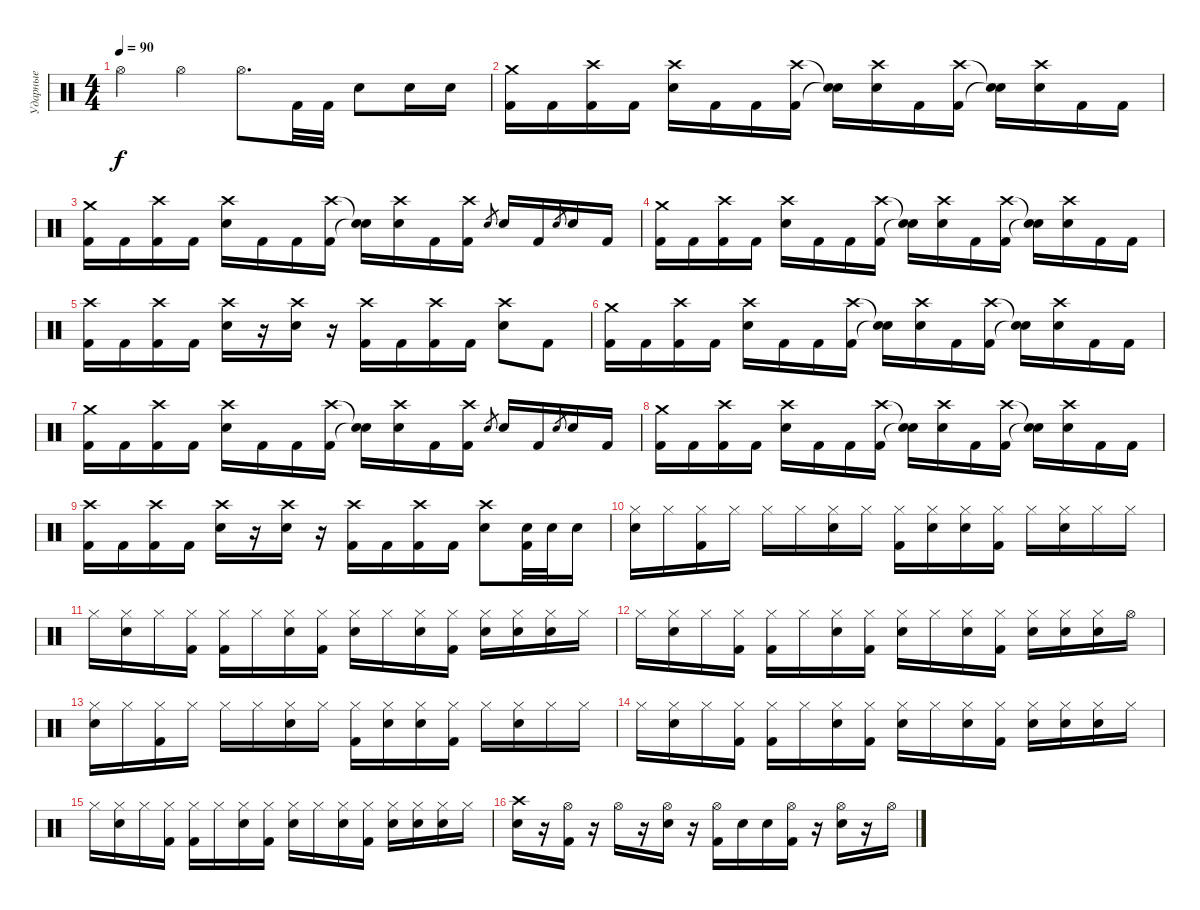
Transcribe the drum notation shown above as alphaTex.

\track ("Ударные" "Ударные") {instrument percussion}
\staff {score}
\articulation defaults
\ts (4 4)
\tempo 90
\clef neutral
\ks c "Hi-Hat (open)".4{dy f} "Hi-Hat (open)".4 "Hi-Hat (open)".8{d} "Kick (hit) 2".32 "Kick (hit) 2".32 "Electric Snare (hit)".8 "Electric Snare (hit)".16 "Electric Snare (hit)".16
|
("Crash medium (hit)" "Kick (hit) 2").16 "Kick (hit) 2".16 ("Crash high (hit)" "Kick (hit) 2").16 "Kick (hit) 2".16 ("Crash high (hit)" "Electric Snare (hit)").16 "Kick (hit) 2".16 "Kick (hit) 2".16 ("Crash high (hit)" "Kick (hit) 2").16 ("Snare (hit)"{t} "Snare (hit)"{t}).16 ("Crash high (hit)" "Electric Snare (hit)").16 "Kick (hit) 2".16 ("Crash high (hit)" "Kick (hit) 2").16 ("Snare (hit)"{t} "Snare (hit)"{t}).16 ("Crash high (hit)" "Electric Snare (hit)").16 "Kick (hit) 2".16 "Kick (hit) 2".16 |
("Crash medium (hit)" "Kick (hit) 2").16 "Kick (hit) 2".16 ("Crash high (hit)" "Kick (hit) 2").16 "Kick (hit) 2".16 ("Crash high (hit)" "Electric Snare (hit)").16 "Kick (hit) 2".16 "Kick (hit) 2".16 ("Crash high (hit)" "Kick (hit) 2").16 ("Snare (hit)"{t} "Snare (hit)"{t}).16 ("Crash high (hit)" "Electric Snare (hit)").16 "Kick (hit) 2".16 ("Crash high (hit)" "Kick (hit) 2").16 "Electric Snare (hit)".8{gr} "Electric Snare (hit)".16 "Kick (hit) 2".16 "Electric Snare (hit)".8{gr} "Electric Snare (hit)".16 "Kick (hit) 2".16 |
("Crash medium (hit)" "Kick (hit) 2").16 "Kick (hit) 2".16 ("Crash high (hit)" "Kick (hit) 2").16 "Kick (hit) 2".16 ("Crash high (hit)" "Electric Snare (hit)").16 "Kick (hit) 2".16 "Kick (hit) 2".16 ("Crash high (hit)" "Kick (hit) 2").16 ("Snare (hit)"{t} "Snare (hit)"{t}).16 ("Crash high (hit)" "Electric Snare (hit)").16 "Kick (hit) 2".16 ("Crash high (hit)" "Kick (hit) 2").16 ("Snare (hit)"{t} "Snare (hit)"{t}).16 ("Crash high (hit)" "Electric Snare (hit)").16 "Kick (hit) 2".16 "Kick (hit) 2".16 |
("Crash high (hit)" "Kick (hit) 2").16 "Kick (hit) 2".16 ("Crash high (hit)" "Kick (hit) 2").16 "Kick (hit) 2".16 ("Crash high (hit)" "Electric Snare (hit)").16 r.16 ("Crash high (hit)" "Electric Snare (hit)").16 r.16 ("Crash high (hit)" "Kick (hit) 2").16 "Kick (hit) 2".16 ("Crash high (hit)" "Kick (hit) 2").16 "Kick (hit) 2".16 ("Crash high (hit)" "Electric Snare (hit)").8 "Kick (hit) 2".8 |
("Crash medium (hit)" "Kick (hit) 2").16 "Kick (hit) 2".16 ("Crash high (hit)" "Kick (hit) 2").16 "Kick (hit) 2".16 ("Crash high (hit)" "Electric Snare (hit)").16 "Kick (hit) 2".16 "Kick (hit) 2".16 ("Crash high (hit)" "Kick (hit) 2").16 ("Snare (hit)"{t} "Snare (hit)"{t}).16 ("Crash high (hit)" "Electric Snare (hit)").16 "Kick (hit) 2".16 ("Crash high (hit)" "Kick (hit) 2").16 ("Snare (hit)"{t} "Snare (hit)"{t}).16 ("Crash high (hit)" "Electric Snare (hit)").16 "Kick (hit) 2".16 "Kick (hit) 2".16 |
("Crash medium (hit)" "Kick (hit) 2").16 "Kick (hit) 2".16 ("Crash high (hit)" "Kick (hit) 2").16 "Kick (hit) 2".16 ("Crash high (hit)" "Electric Snare (hit)").16 "Kick (hit) 2".16 "Kick (hit) 2".16 ("Crash high (hit)" "Kick (hit) 2").16 ("Snare (hit)"{t} "Snare (hit)"{t}).16 ("Crash high (hit)" "Electric Snare (hit)").16 "Kick (hit) 2".16 ("Crash high (hit)" "Kick (hit) 2").16 "Electric Snare (hit)".8{gr} "Electric Snare (hit)".16 "Kick (hit) 2".16 "Electric Snare (hit)".8{gr} "Electric Snare (hit)".16 "Kick (hit) 2".16 |
("Crash medium (hit)" "Kick (hit) 2").16 "Kick (hit) 2".16 ("Crash high (hit)" "Kick (hit) 2").16 "Kick (hit) 2".16 ("Crash high (hit)" "Electric Snare (hit)").16 "Kick (hit) 2".16 "Kick (hit) 2".16 ("Crash high (hit)" "Kick (hit) 2").16 ("Snare (hit)"{t} "Snare (hit)"{t}).16 ("Crash high (hit)" "Electric Snare (hit)").16 "Kick (hit) 2".16 ("Crash high (hit)" "Kick (hit) 2").16 ("Snare (hit)"{t} "Snare (hit)"{t}).16 ("Crash high (hit)" "Electric Snare (hit)").16 "Kick (hit) 2".16 "Kick (hit) 2".16 |
("Crash high (hit)" "Kick (hit) 2").16 "Kick (hit) 2".16 ("Crash high (hit)" "Kick (hit) 2").16 "Kick (hit) 2".16 ("Crash high (hit)" "Electric Snare (hit)").16 r.16 ("Crash high (hit)" "Electric Snare (hit)").16 r.16 ("Crash high (hit)" "Kick (hit) 2").16 "Kick (hit) 2".16 ("Crash high (hit)" "Kick (hit) 2").16 "Kick (hit) 2".16 ("Crash high (hit)" "Electric Snare (hit)").8 ("Electric Snare (hit)" "Kick (hit) 2").32 "Electric Snare (hit)".32 "Electric Snare (hit)".16 |
("Hi-Hat (closed)" "Electric Snare (hit)").16 "Hi-Hat (closed)".16 ("Hi-Hat (closed)" "Kick (hit) 2").16 "Hi-Hat (closed)".16 "Hi-Hat (closed)".16 "Hi-Hat (closed)".16 ("Hi-Hat (closed)" "Electric Snare (hit)").16 "Hi-Hat (closed)".16 ("Hi-Hat (closed)" "Kick (hit) 2").16 ("Hi-Hat (closed)" "Electric Snare (hit)").16 ("Hi-Hat (closed)" "Electric Snare (hit)").16 ("Hi-Hat (closed)" "Kick (hit) 2").16 "Hi-Hat (closed)".16 ("Hi-Hat (closed)" "Electric Snare (hit)").16 "Hi-Hat (closed)".16 "Hi-Hat (closed)".16 |
"Hi-Hat (closed)".16 ("Hi-Hat (closed)" "Electric Snare (hit)").16 "Hi-Hat (closed)".16 ("Hi-Hat (closed)" "Kick (hit) 2").16 ("Hi-Hat (closed)" "Kick (hit) 2").16 "Hi-Hat (closed)".16 ("Hi-Hat (closed)" "Electric Snare (hit)").16 ("Hi-Hat (closed)" "Kick (hit) 2").16 ("Hi-Hat (closed)" "Electric Snare (hit)").16 "Hi-Hat (closed)".16 ("Hi-Hat (closed)" "Electric Snare (hit)").16 ("Hi-Hat (closed)" "Kick (hit) 2").16 ("Hi-Hat (closed)" "Electric Snare (hit)").16 ("Hi-Hat (closed)" "Electric Snare (hit)").16 ("Hi-Hat (closed)" "Electric Snare (hit)").16 "Hi-Hat (closed)".16 |
"Hi-Hat (closed)".16 ("Hi-Hat (closed)" "Electric Snare (hit)").16 "Hi-Hat (closed)".16 ("Hi-Hat (closed)" "Kick (hit) 2").16 ("Hi-Hat (closed)" "Kick (hit) 2").16 "Hi-Hat (closed)".16 ("Hi-Hat (closed)" "Electric Snare (hit)").16 ("Hi-Hat (closed)" "Kick (hit) 2").16 ("Hi-Hat (closed)" "Electric Snare (hit)").16 "Hi-Hat (closed)".16 ("Hi-Hat (closed)" "Electric Snare (hit)").16 ("Hi-Hat (closed)" "Kick (hit) 2").16 ("Hi-Hat (closed)" "Electric Snare (hit)").16 ("Hi-Hat (closed)" "Electric Snare (hit)").16 ("Hi-Hat (closed)" "Electric Snare (hit)").16 "Hi-Hat (open)".16 |
("Hi-Hat (closed)" "Electric Snare (hit)").16 "Hi-Hat (closed)".16 ("Hi-Hat (closed)" "Kick (hit) 2").16 "Hi-Hat (closed)".16 "Hi-Hat (closed)".16 "Hi-Hat (closed)".16 ("Hi-Hat (closed)" "Electric Snare (hit)").16 "Hi-Hat (closed)".16 ("Hi-Hat (closed)" "Kick (hit) 2").16 ("Hi-Hat (closed)" "Electric Snare (hit)").16 ("Hi-Hat (closed)" "Electric Snare (hit)").16 ("Hi-Hat (closed)" "Kick (hit) 2").16 "Hi-Hat (closed)".16 ("Hi-Hat (closed)" "Electric Snare (hit)").16 "Hi-Hat (closed)".16 "Hi-Hat (closed)".16 |
"Hi-Hat (closed)".16 ("Hi-Hat (closed)" "Electric Snare (hit)").16 "Hi-Hat (closed)".16 ("Hi-Hat (closed)" "Kick (hit) 2").16 ("Hi-Hat (closed)" "Kick (hit) 2").16 "Hi-Hat (closed)".16 ("Hi-Hat (closed)" "Electric Snare (hit)").16 ("Hi-Hat (closed)" "Kick (hit) 2").16 ("Hi-Hat (closed)" "Electric Snare (hit)").16 "Hi-Hat (closed)".16 ("Hi-Hat (closed)" "Electric Snare (hit)").16 ("Hi-Hat (closed)" "Kick (hit) 2").16 ("Hi-Hat (closed)" "Electric Snare (hit)").16 ("Hi-Hat (closed)" "Electric Snare (hit)").16 ("Hi-Hat (closed)" "Electric Snare (hit)").16 "Hi-Hat (closed)".16 |
"Hi-Hat (closed)".16 ("Hi-Hat (closed)" "Electric Snare (hit)").16 "Hi-Hat (closed)".16 ("Hi-Hat (closed)" "Kick (hit) 2").16 ("Hi-Hat (closed)" "Kick (hit) 2").16 "Hi-Hat (closed)".16 ("Hi-Hat (closed)" "Electric Snare (hit)").16 ("Hi-Hat (closed)" "Kick (hit) 2").16 ("Hi-Hat (closed)" "Electric Snare (hit)").16 "Hi-Hat (closed)".16 ("Hi-Hat (closed)" "Electric Snare (hit)").16 ("Hi-Hat (closed)" "Kick (hit) 2").16 ("Hi-Hat (closed)" "Electric Snare (hit)").16 ("Hi-Hat (closed)" "Electric Snare (hit)").16 ("Hi-Hat (closed)" "Electric Snare (hit)").16 "Hi-Hat (closed)".16 |
("Crash high (hit)" "Electric Snare (hit)").16 r.16 ("Hi-Hat (open)" "Kick (hit) 2").16 r.16 "Hi-Hat (open)".16 r.16 ("Hi-Hat (open)" "Electric Snare (hit)").16 r.16 ("Hi-Hat (open)" "Kick (hit) 2").16 "Electric Snare (hit)".16 "Electric Snare (hit)".16 ("Hi-Hat (open)" "Kick (hit) 2").16 r.16 ("Hi-Hat (open)" "Electric Snare (hit)").16 r.16 "Hi-Hat (open)".16
